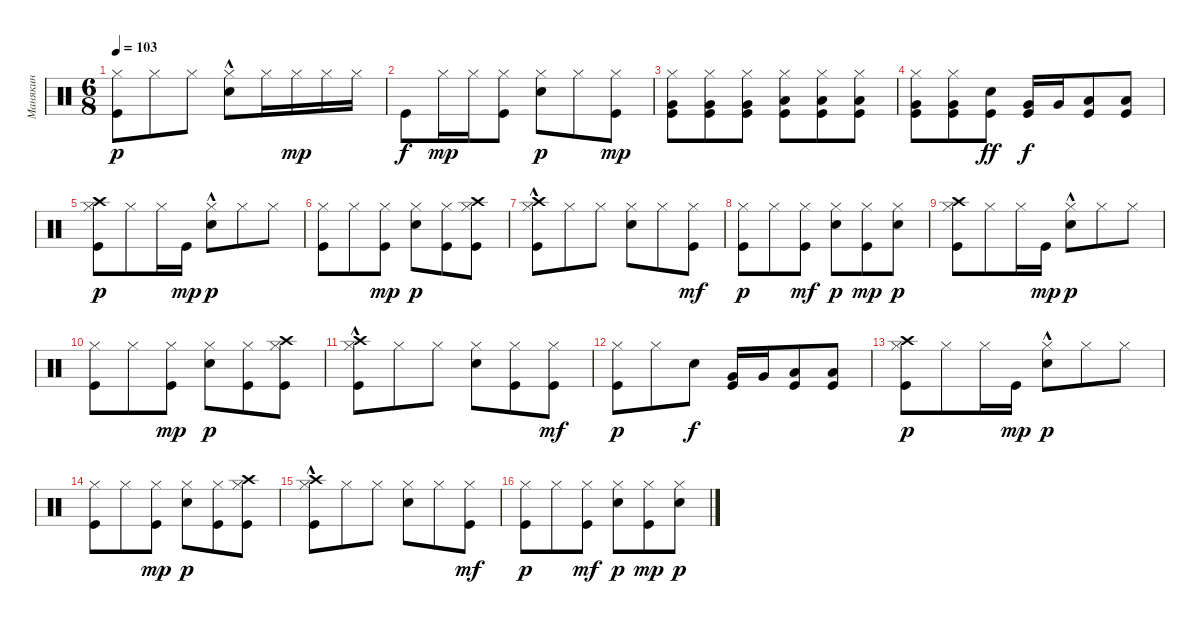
\track ("Манякин" "Манякин") {instrument percussion}
\staff {score}
\articulation defaults
\ts (6 8)
\tempo 103
\clef neutral
\ks c
("Hi-Hat (closed)" "Kick (hit)").8{dy p} "Hi-Hat (closed)".8 "Hi-Hat (closed)".8 ("Hi-Hat (closed)" "Electric Snare (hit)"{hac}).8 "Hi-Hat (closed)".16 "Hi-Hat (closed)".16{dy mp} "Hi-Hat (closed)".16 "Hi-Hat (closed)".16 |
"Kick (hit)".8{dy f} "Hi-Hat (closed)".16{dy mp} "Hi-Hat (closed)".16 ("Kick (hit)" "Hi-Hat (closed)").8 ("Hi-Hat (closed)" "Electric Snare (hit)").8{dy p} "Hi-Hat (closed)".8 ("Hi-Hat (closed)" "Kick (hit)").8{dy mp} |
("Hi-Hat (closed)" "Kick (hit)" "Very Low Tom (hit)").8 ("Hi-Hat (closed)" "Kick (hit)" "Very Low Tom (hit)").8 ("Hi-Hat (closed)" "Kick (hit)" "Very Low Tom (hit)").8 ("Hi-Hat (closed)" "Kick (hit)" "Low Floor Tom (hit)").8 ("Hi-Hat (closed)" "Kick (hit)" "Low Floor Tom (hit)").8 ("Hi-Hat (closed)" "Kick (hit)" "Low Floor Tom (hit)").8 |
("Hi-Hat (closed)" "Very Low Tom (hit)" "Kick (hit)").8 ("Hi-Hat (closed)" "Very Low Tom (hit)" "Kick (hit)").8 ("Electric Snare (hit)" "Kick (hit)").8{dy ff} ("Kick (hit)" "Very Low Tom (hit)").16{dy f} "Very Low Tom (hit)".16 ("Kick (hit)" "Low Floor Tom (hit)").8 ("Kick (hit)" "Low Floor Tom (hit)").8 |
("Crash high (hit)" "Hi-Hat (closed)" "Kick (hit)").8{dy p} "Hi-Hat (closed)".8 "Hi-Hat (closed)".16 "Kick (hit)".16{dy mp} ("Hi-Hat (closed)" "Electric Snare (hit)"{hac}).8{dy p} "Hi-Hat (closed)".8 "Hi-Hat (closed)".8 |
("Hi-Hat (closed)" "Kick (hit)").8 "Hi-Hat (closed)".8 ("Hi-Hat (closed)" "Kick (hit)").8{dy mp} ("Hi-Hat (closed)" "Electric Snare (hit)").8{dy p} ("Hi-Hat (closed)" "Kick (hit)").8 ("Crash high (hit)" "Hi-Hat (closed)" "Kick (hit)").8 |
("Crash high (hit)" "Hi-Hat (closed)" "Kick (hit)"{hac}).8 "Hi-Hat (closed)".8 "Hi-Hat (closed)".8 ("Hi-Hat (closed)" "Electric Snare (hit)").8 "Hi-Hat (closed)".8 ("Hi-Hat (closed)" "Kick (hit)").8{dy mf} |
("Hi-Hat (closed)" "Kick (hit)").8{dy p} "Hi-Hat (closed)".8 ("Hi-Hat (closed)" "Kick (hit)").8{dy mf} ("Hi-Hat (closed)" "Electric Snare (hit)").8{dy p} ("Hi-Hat (closed)" "Kick (hit)").8{dy mp} ("Hi-Hat (closed)" "Electric Snare (hit)").8{dy p} |
("Crash high (hit)" "Hi-Hat (closed)" "Kick (hit)").8 "Hi-Hat (closed)".8 "Hi-Hat (closed)".16 "Kick (hit)".16{dy mp} ("Hi-Hat (closed)" "Electric Snare (hit)"{hac}).8{dy p} "Hi-Hat (closed)".8 "Hi-Hat (closed)".8 |
("Hi-Hat (closed)" "Kick (hit)").8 "Hi-Hat (closed)".8 ("Hi-Hat (closed)" "Kick (hit)").8{dy mp} ("Hi-Hat (closed)" "Electric Snare (hit)").8{dy p} ("Hi-Hat (closed)" "Kick (hit)").8 ("Crash high (hit)" "Hi-Hat (closed)" "Kick (hit)").8 |
("Crash high (hit)" "Hi-Hat (closed)" "Kick (hit)"{hac}).8 "Hi-Hat (closed)".8 "Hi-Hat (closed)".8 ("Hi-Hat (closed)" "Electric Snare (hit)").8 ("Hi-Hat (closed)" "Kick (hit)").8 ("Hi-Hat (closed)" "Kick (hit)").8{dy mf} |
("Hi-Hat (closed)" "Kick (hit)").8{dy p} "Hi-Hat (closed)".8 "Electric Snare (hit)".8{dy f} ("Kick (hit)" "Very Low Tom (hit)").16 "Very Low Tom (hit)".16 ("Kick (hit)" "Low Floor Tom (hit)").8 ("Kick (hit)" "Low Floor Tom (hit)").8 |
("Crash high (hit)" "Hi-Hat (closed)" "Kick (hit)").8{dy p} "Hi-Hat (closed)".8 "Hi-Hat (closed)".16 "Kick (hit)".16{dy mp} ("Hi-Hat (closed)" "Electric Snare (hit)"{hac}).8{dy p} "Hi-Hat (closed)".8 "Hi-Hat (closed)".8 |
("Hi-Hat (closed)" "Kick (hit)").8 "Hi-Hat (closed)".8 ("Hi-Hat (closed)" "Kick (hit)").8{dy mp} ("Hi-Hat (closed)" "Electric Snare (hit)").8{dy p} ("Hi-Hat (closed)" "Kick (hit)").8 ("Crash high (hit)" "Hi-Hat (closed)" "Kick (hit)").8 |
("Crash high (hit)" "Hi-Hat (closed)" "Kick (hit)"{hac}).8 "Hi-Hat (closed)".8 "Hi-Hat (closed)".8 ("Hi-Hat (closed)" "Electric Snare (hit)").8 "Hi-Hat (closed)".8 ("Hi-Hat (closed)" "Kick (hit)").8{dy mf} |
("Hi-Hat (closed)" "Kick (hit)").8{dy p} "Hi-Hat (closed)".8 ("Hi-Hat (closed)" "Kick (hit)").8{dy mf} ("Hi-Hat (closed)" "Electric Snare (hit)").8{dy p} ("Hi-Hat (closed)" "Kick (hit)").8{dy mp} ("Hi-Hat (closed)" "Electric Snare (hit)").8{dy p}
